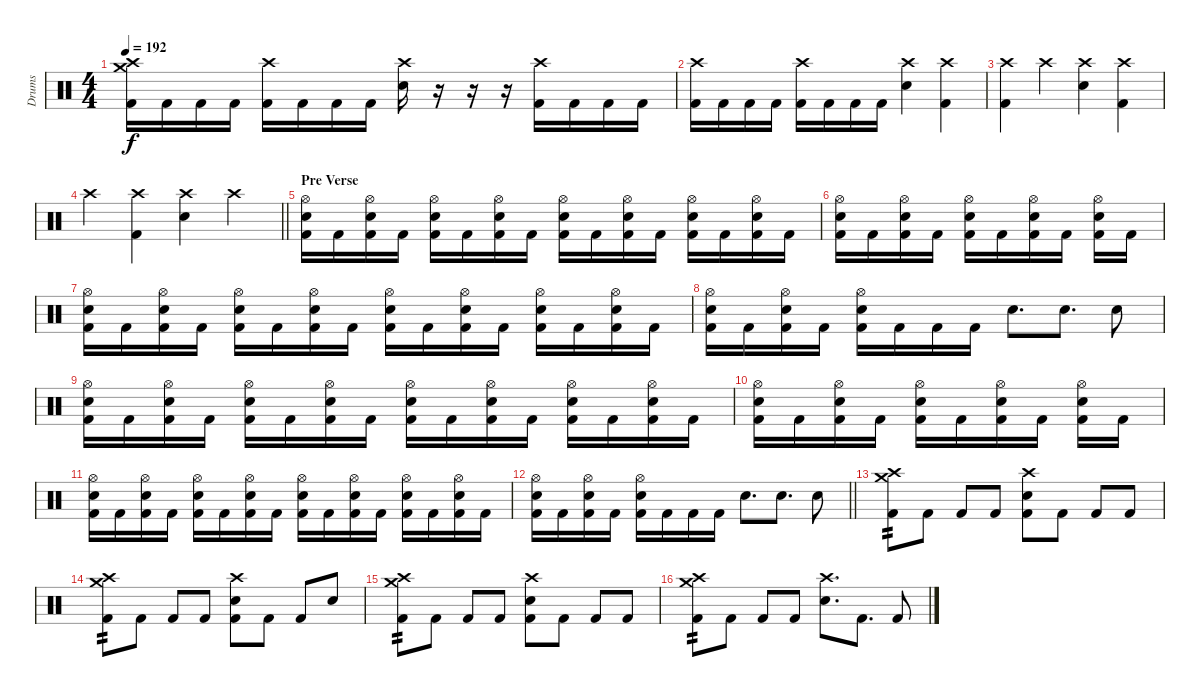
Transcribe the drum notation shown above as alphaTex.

\track ("Drums" "Drums") {instrument percussion}
\staff {score}
\articulation defaults
\ts (4 4)
\tempo 192
\clef neutral
\ks c
("Crash high (hit)" "Crash medium (hit)" "Kick (hit) 2").16{dy f} "Kick (hit) 2".16 "Kick (hit) 2".16 "Kick (hit) 2".16 ("Crash high (hit)" "Kick (hit) 2").16 "Kick (hit) 2".16 "Kick (hit) 2".16 "Kick (hit) 2".16 ("Crash high (hit)" "Snare (hit) 2").16 r.16 r.16 r.16 ("Crash high (hit)" "Kick (hit) 2").16 "Kick (hit) 2".16 "Kick (hit) 2".16 "Kick (hit) 2".16 |
("Crash high (hit)" "Kick (hit) 2").16 "Kick (hit) 2".16 "Kick (hit) 2".16 "Kick (hit) 2".16 ("Crash high (hit)" "Kick (hit) 2").16 "Kick (hit) 2".16 "Kick (hit) 2".16 "Kick (hit) 2".16 ("Crash high (hit)" "Snare (hit) 2").4 ("Crash high (hit)" "Kick (hit) 2").4 |
("Crash high (hit)" "Kick (hit) 2").4 "Crash high (hit)".4 ("Crash high (hit)" "Snare (hit) 2").4 ("Crash high (hit)" "Kick (hit) 2").4 |
\barLineRight lightlight "Crash high (hit)".4
("Crash high (hit)" "Kick (hit) 2").4 ("Crash high (hit)" "Snare (hit) 2").4 "Crash high (hit)".4 |
\section ("" "Pre Verse")
("Hi-Hat (open)" "Snare (hit) 2" "Kick (hit) 2").16 "Kick (hit) 2".16 ("Hi-Hat (open)" "Snare (hit) 2" "Kick (hit) 2").16 "Kick (hit) 2".16 ("Hi-Hat (open)" "Snare (hit) 2" "Kick (hit) 2").16 "Kick (hit) 2".16 ("Hi-Hat (open)" "Snare (hit) 2" "Kick (hit) 2").16 "Kick (hit) 2".16 ("Hi-Hat (open)" "Snare (hit) 2" "Kick (hit) 2").16 "Kick (hit) 2".16 ("Hi-Hat (open)" "Snare (hit) 2" "Kick (hit) 2").16 "Kick (hit) 2".16 ("Hi-Hat (open)" "Snare (hit) 2" "Kick (hit) 2").16 "Kick (hit) 2".16 ("Hi-Hat (open)" "Snare (hit) 2" "Kick (hit) 2").16 "Kick (hit) 2".16 |
("Hi-Hat (open)" "Snare (hit) 2" "Kick (hit) 2").16 "Kick (hit) 2".16 ("Hi-Hat (open)" "Snare (hit) 2" "Kick (hit) 2").16 "Kick (hit) 2".16 ("Hi-Hat (open)" "Snare (hit) 2" "Kick (hit) 2").16 "Kick (hit) 2".16 ("Hi-Hat (open)" "Snare (hit) 2" "Kick (hit) 2").16 "Kick (hit) 2".16 ("Hi-Hat (open)" "Snare (hit) 2" "Kick (hit) 2").16 "Kick (hit) 2".16 |
("Hi-Hat (open)" "Snare (hit) 2" "Kick (hit) 2").16 "Kick (hit) 2".16 ("Hi-Hat (open)" "Snare (hit) 2" "Kick (hit) 2").16 "Kick (hit) 2".16 ("Hi-Hat (open)" "Snare (hit) 2" "Kick (hit) 2").16 "Kick (hit) 2".16 ("Hi-Hat (open)" "Snare (hit) 2" "Kick (hit) 2").16 "Kick (hit) 2".16 ("Hi-Hat (open)" "Snare (hit) 2" "Kick (hit) 2").16 "Kick (hit) 2".16 ("Hi-Hat (open)" "Snare (hit) 2" "Kick (hit) 2").16 "Kick (hit) 2".16 ("Hi-Hat (open)" "Snare (hit) 2" "Kick (hit) 2").16 "Kick (hit) 2".16 ("Hi-Hat (open)" "Snare (hit) 2" "Kick (hit) 2").16 "Kick (hit) 2".16 |
("Hi-Hat (open)" "Snare (hit) 2" "Kick (hit) 2").16 "Kick (hit) 2".16 ("Hi-Hat (open)" "Snare (hit) 2" "Kick (hit) 2").16 "Kick (hit) 2".16 ("Hi-Hat (open)" "Snare (hit) 2" "Kick (hit) 2").16 "Kick (hit) 2".16 "Kick (hit) 2".16 "Kick (hit) 2".16 "Snare (hit) 2".8{d} "Snare (hit) 2".8{d} "Snare (hit) 2".8 |
("Hi-Hat (open)" "Snare (hit) 2" "Kick (hit) 2").16 "Kick (hit) 2".16 ("Hi-Hat (open)" "Snare (hit) 2" "Kick (hit) 2").16 "Kick (hit) 2".16 ("Hi-Hat (open)" "Snare (hit) 2" "Kick (hit) 2").16 "Kick (hit) 2".16 ("Hi-Hat (open)" "Snare (hit) 2" "Kick (hit) 2").16 "Kick (hit) 2".16 ("Hi-Hat (open)" "Snare (hit) 2" "Kick (hit) 2").16 "Kick (hit) 2".16 ("Hi-Hat (open)" "Snare (hit) 2" "Kick (hit) 2").16 "Kick (hit) 2".16 ("Hi-Hat (open)" "Snare (hit) 2" "Kick (hit) 2").16 "Kick (hit) 2".16 ("Hi-Hat (open)" "Snare (hit) 2" "Kick (hit) 2").16 "Kick (hit) 2".16 |
("Hi-Hat (open)" "Snare (hit) 2" "Kick (hit) 2").16 "Kick (hit) 2".16 ("Hi-Hat (open)" "Snare (hit) 2" "Kick (hit) 2").16 "Kick (hit) 2".16 ("Hi-Hat (open)" "Snare (hit) 2" "Kick (hit) 2").16 "Kick (hit) 2".16 ("Hi-Hat (open)" "Snare (hit) 2" "Kick (hit) 2").16 "Kick (hit) 2".16 ("Hi-Hat (open)" "Snare (hit) 2" "Kick (hit) 2").16 "Kick (hit) 2".16 |
("Hi-Hat (open)" "Snare (hit) 2" "Kick (hit) 2").16 "Kick (hit) 2".16 ("Hi-Hat (open)" "Snare (hit) 2" "Kick (hit) 2").16 "Kick (hit) 2".16 ("Hi-Hat (open)" "Snare (hit) 2" "Kick (hit) 2").16 "Kick (hit) 2".16 ("Hi-Hat (open)" "Snare (hit) 2" "Kick (hit) 2").16 "Kick (hit) 2".16 ("Hi-Hat (open)" "Snare (hit) 2" "Kick (hit) 2").16 "Kick (hit) 2".16 ("Hi-Hat (open)" "Snare (hit) 2" "Kick (hit) 2").16 "Kick (hit) 2".16 ("Hi-Hat (open)" "Snare (hit) 2" "Kick (hit) 2").16 "Kick (hit) 2".16 ("Hi-Hat (open)" "Snare (hit) 2" "Kick (hit) 2").16 "Kick (hit) 2".16 |
\barLineRight lightlight
("Hi-Hat (open)" "Snare (hit) 2" "Kick (hit) 2").16 "Kick (hit) 2".16 ("Hi-Hat (open)" "Snare (hit) 2" "Kick (hit) 2").16 "Kick (hit) 2".16 ("Hi-Hat (open)" "Snare (hit) 2" "Kick (hit) 2").16 "Kick (hit) 2".16 "Kick (hit) 2".16 "Kick (hit) 2".16 "Snare (hit) 2".8{d} "Snare (hit) 2".8{d} "Snare (hit) 2".8 |
("Crash high (hit)" "Crash medium (hit)" "Kick (hit) 2").8{tp 2} "Kick (hit) 2".8 "Kick (hit) 2".8 "Kick (hit) 2".8 ("Crash high (hit)" "Snare (hit) 2" "Kick (hit) 2").8 "Kick (hit) 2".8 "Kick (hit) 2".8 "Kick (hit) 2".8 |
("Crash high (hit)" "Crash medium (hit)" "Kick (hit) 2").8{tp 2} "Kick (hit) 2".8 "Kick (hit) 2".8 "Kick (hit) 2".8 ("Crash high (hit)" "Snare (hit) 2" "Kick (hit) 2").8 "Kick (hit) 2".8 "Kick (hit) 2".8 "Snare (hit) 2".8 |
("Crash high (hit)" "Crash medium (hit)" "Kick (hit) 2").8{tp 2} "Kick (hit) 2".8 "Kick (hit) 2".8 "Kick (hit) 2".8 ("Crash high (hit)" "Snare (hit) 2" "Kick (hit) 2").8 "Kick (hit) 2".8 "Kick (hit) 2".8 "Kick (hit) 2".8 |
("Crash high (hit)" "Crash medium (hit)" "Kick (hit) 2").8{tp 2} "Kick (hit) 2".8 "Kick (hit) 2".8 "Kick (hit) 2".8 ("Crash high (hit)" "Snare (hit) 2").8{d} "Kick (hit) 2".8{d} "Kick (hit) 2".8
